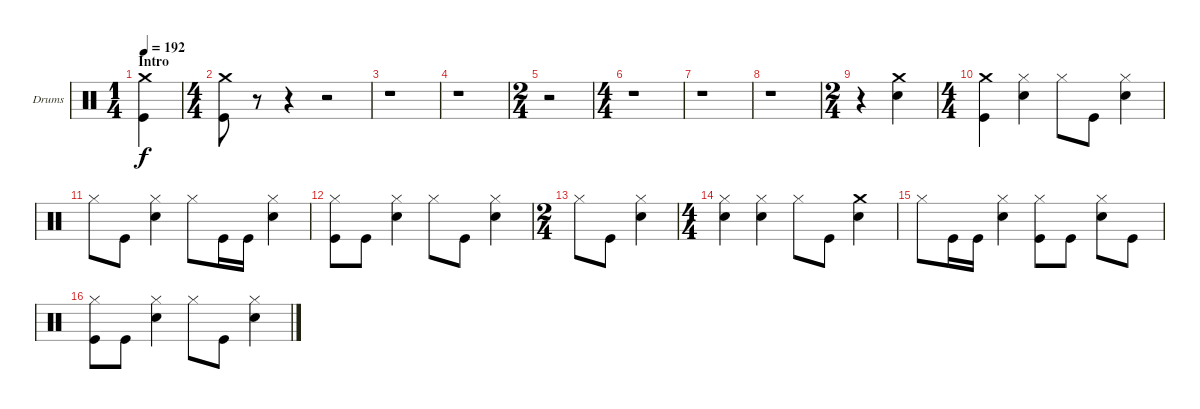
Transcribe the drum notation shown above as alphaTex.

\bracketExtendMode groupsimilarinstruments
\firstSystemTrackNameOrientation horizontal
\otherSystemsTrackNameOrientation horizontal
\track ("Lars Ulrich" "Drums") {instrument percussion}
\staff {score}
\articulation defaults
\ts (1 4)
\beaming (8 2)
\section ("" "Intro")
\tempo 192
\clef neutral
\ks c
("Crash medium (hit)" "Kick (hit)").4{dy f} |
\ts (4 4)
\beaming (8 2 2 2 2)
("Crash medium (hit)" "Kick (hit)").8 r.8 r.4 r.2 |
r.1 |
r.1 |
\ts (2 4)
\beaming (8 2 2)
r.2 |
\ts (4 4)
\beaming (8 2 2 2 2)
r.1 |
r.1 |
r.1 |
\ts (2 4)
\beaming (8 2 2)
r.4 ("Crash medium (hit)" "Snare (hit) 2").4 |
\ts (4 4)
\beaming (8 2 2 2 2)
("Crash medium (hit)" "Kick (hit)").4 ("Hi-Hat (closed)" "Snare (hit) 2").4 "Hi-Hat (closed)".8 "Kick (hit)".8 ("Hi-Hat (closed)" "Snare (hit) 2").4 |
"Hi-Hat (closed)".8 "Kick (hit)".8 ("Hi-Hat (closed)" "Snare (hit) 2").4 "Hi-Hat (closed)".8 "Kick (hit)".16 "Kick (hit)".16 ("Hi-Hat (closed)" "Snare (hit) 2").4 |
("Hi-Hat (closed)" "Kick (hit)").8 "Kick (hit)".8 ("Hi-Hat (closed)" "Snare (hit) 2").4 "Hi-Hat (closed)".8 "Kick (hit)".8 ("Hi-Hat (closed)" "Snare (hit) 2").4 |
\ts (2 4)
\beaming (8 2 2)
"Hi-Hat (closed)".8 "Kick (hit)".8 ("Hi-Hat (closed)" "Snare (hit) 2").4 |
\ts (4 4)
\beaming (8 2 2 2 2)
("Hi-Hat (closed)" "Snare (hit) 2").4 ("Hi-Hat (closed)" "Snare (hit) 2").4 "Hi-Hat (closed)".8 "Kick (hit)".8 ("Crash medium (hit)" "Snare (hit) 2").4 |
"Hi-Hat (closed)".8 "Kick (hit)".16 "Kick (hit)".16 ("Hi-Hat (closed)" "Snare (hit) 2").4 ("Hi-Hat (closed)" "Kick (hit)").8 "Kick (hit)".8 ("Hi-Hat (closed)" "Snare (hit) 2").8 "Kick (hit)".8 |
("Hi-Hat (closed)" "Kick (hit)").8 "Kick (hit)".8 ("Hi-Hat (closed)" "Snare (hit) 2").4 "Hi-Hat (closed)".8 "Kick (hit)".8 ("Hi-Hat (closed)" "Snare (hit) 2").4
